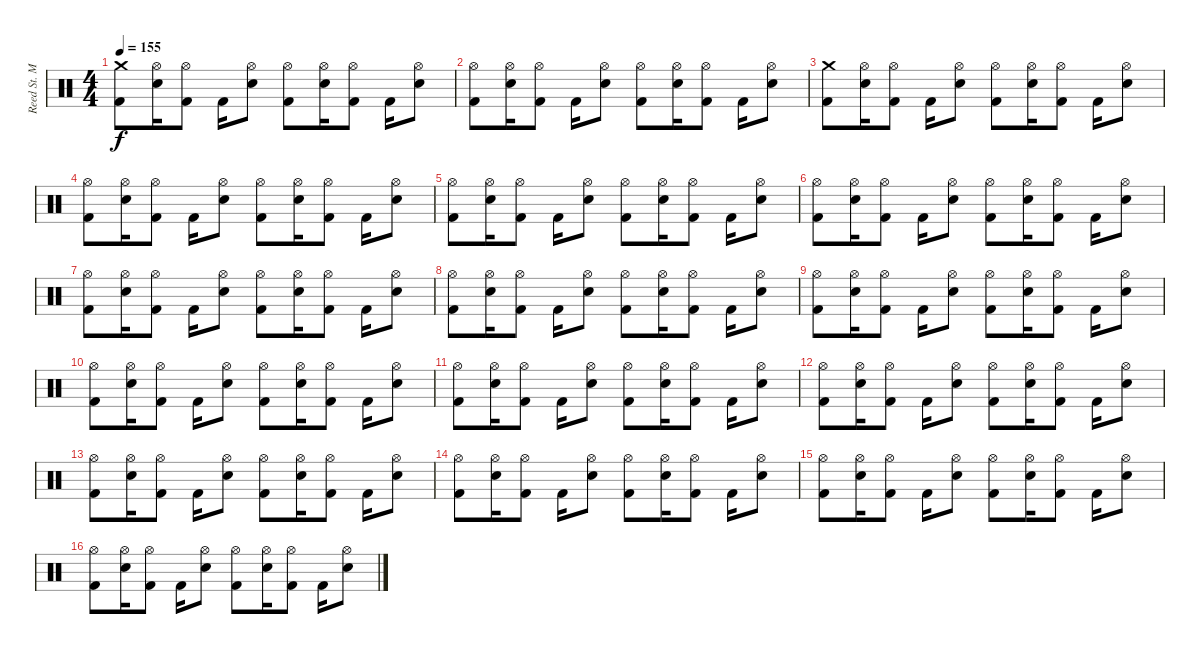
\track ("Reed St. Mark" "Reed St. M") {instrument percussion}
\staff {score}
\articulation defaults
\ts (4 4)
\tempo 155
\clef neutral
\ks c
("Crash medium (hit)" "Kick (hit) 2").8{dy f} ("Hi-Hat (open)" "Snare (hit) 2").16 ("Hi-Hat (open)" "Kick (hit) 2").8 "Kick (hit) 2".16 ("Hi-Hat (open)" "Snare (hit) 2").8 ("Hi-Hat (open)" "Kick (hit) 2").8 ("Hi-Hat (open)" "Snare (hit) 2").16 ("Hi-Hat (open)" "Kick (hit) 2").8 "Kick (hit) 2".16 ("Hi-Hat (open)" "Snare (hit) 2").8 |
("Hi-Hat (open)" "Kick (hit) 2").8 ("Hi-Hat (open)" "Snare (hit) 2").16 ("Hi-Hat (open)" "Kick (hit) 2").8 "Kick (hit) 2".16 ("Hi-Hat (open)" "Snare (hit) 2").8 ("Hi-Hat (open)" "Kick (hit) 2").8 ("Hi-Hat (open)" "Snare (hit) 2").16 ("Hi-Hat (open)" "Kick (hit) 2").8 "Kick (hit) 2".16 ("Hi-Hat (open)" "Snare (hit) 2").8 |
("Crash medium (hit)" "Kick (hit) 2").8 ("Hi-Hat (open)" "Snare (hit) 2").16 ("Hi-Hat (open)" "Kick (hit) 2").8 "Kick (hit) 2".16 ("Hi-Hat (open)" "Snare (hit) 2").8 ("Hi-Hat (open)" "Kick (hit) 2").8 ("Hi-Hat (open)" "Snare (hit) 2").16 ("Hi-Hat (open)" "Kick (hit) 2").8 "Kick (hit) 2".16 ("Hi-Hat (open)" "Snare (hit) 2").8 |
("Hi-Hat (open)" "Kick (hit) 2").8 ("Hi-Hat (open)" "Snare (hit) 2").16 ("Hi-Hat (open)" "Kick (hit) 2").8 "Kick (hit) 2".16 ("Hi-Hat (open)" "Snare (hit) 2").8 ("Hi-Hat (open)" "Kick (hit) 2").8 ("Hi-Hat (open)" "Snare (hit) 2").16 ("Hi-Hat (open)" "Kick (hit) 2").8 "Kick (hit) 2".16 ("Hi-Hat (open)" "Snare (hit) 2").8 |
("Hi-Hat (open)" "Kick (hit) 2").8 ("Hi-Hat (open)" "Snare (hit) 2").16 ("Hi-Hat (open)" "Kick (hit) 2").8 "Kick (hit) 2".16 ("Hi-Hat (open)" "Snare (hit) 2").8 ("Hi-Hat (open)" "Kick (hit) 2").8 ("Hi-Hat (open)" "Snare (hit) 2").16 ("Hi-Hat (open)" "Kick (hit) 2").8 "Kick (hit) 2".16 ("Hi-Hat (open)" "Snare (hit) 2").8 |
("Hi-Hat (open)" "Kick (hit) 2").8 ("Hi-Hat (open)" "Snare (hit) 2").16 ("Hi-Hat (open)" "Kick (hit) 2").8 "Kick (hit) 2".16 ("Hi-Hat (open)" "Snare (hit) 2").8 ("Hi-Hat (open)" "Kick (hit) 2").8 ("Hi-Hat (open)" "Snare (hit) 2").16 ("Hi-Hat (open)" "Kick (hit) 2").8 "Kick (hit) 2".16 ("Hi-Hat (open)" "Snare (hit) 2").8 |
("Hi-Hat (open)" "Kick (hit) 2").8 ("Hi-Hat (open)" "Snare (hit) 2").16 ("Hi-Hat (open)" "Kick (hit) 2").8 "Kick (hit) 2".16 ("Hi-Hat (open)" "Snare (hit) 2").8 ("Hi-Hat (open)" "Kick (hit) 2").8 ("Hi-Hat (open)" "Snare (hit) 2").16 ("Hi-Hat (open)" "Kick (hit) 2").8 "Kick (hit) 2".16 ("Hi-Hat (open)" "Snare (hit) 2").8 |
("Hi-Hat (open)" "Kick (hit) 2").8 ("Hi-Hat (open)" "Snare (hit) 2").16 ("Hi-Hat (open)" "Kick (hit) 2").8 "Kick (hit) 2".16 ("Hi-Hat (open)" "Snare (hit) 2").8 ("Hi-Hat (open)" "Kick (hit) 2").8 ("Hi-Hat (open)" "Snare (hit) 2").16 ("Hi-Hat (open)" "Kick (hit) 2").8 "Kick (hit) 2".16 ("Hi-Hat (open)" "Snare (hit) 2").8 |
("Hi-Hat (open)" "Kick (hit) 2").8 ("Hi-Hat (open)" "Snare (hit) 2").16 ("Hi-Hat (open)" "Kick (hit) 2").8 "Kick (hit) 2".16 ("Hi-Hat (open)" "Snare (hit) 2").8 ("Hi-Hat (open)" "Kick (hit) 2").8 ("Hi-Hat (open)" "Snare (hit) 2").16 ("Hi-Hat (open)" "Kick (hit) 2").8 "Kick (hit) 2".16 ("Hi-Hat (open)" "Snare (hit) 2").8 |
("Hi-Hat (open)" "Kick (hit) 2").8 ("Hi-Hat (open)" "Snare (hit) 2").16 ("Hi-Hat (open)" "Kick (hit) 2").8 "Kick (hit) 2".16 ("Hi-Hat (open)" "Snare (hit) 2").8 ("Hi-Hat (open)" "Kick (hit) 2").8 ("Hi-Hat (open)" "Snare (hit) 2").16 ("Hi-Hat (open)" "Kick (hit) 2").8 "Kick (hit) 2".16 ("Hi-Hat (open)" "Snare (hit) 2").8 |
("Hi-Hat (open)" "Kick (hit) 2").8 ("Hi-Hat (open)" "Snare (hit) 2").16 ("Hi-Hat (open)" "Kick (hit) 2").8 "Kick (hit) 2".16 ("Hi-Hat (open)" "Snare (hit) 2").8 ("Hi-Hat (open)" "Kick (hit) 2").8 ("Hi-Hat (open)" "Snare (hit) 2").16 ("Hi-Hat (open)" "Kick (hit) 2").8 "Kick (hit) 2".16 ("Hi-Hat (open)" "Snare (hit) 2").8 |
("Hi-Hat (open)" "Kick (hit) 2").8 ("Hi-Hat (open)" "Snare (hit) 2").16 ("Hi-Hat (open)" "Kick (hit) 2").8 "Kick (hit) 2".16 ("Hi-Hat (open)" "Snare (hit) 2").8 ("Hi-Hat (open)" "Kick (hit) 2").8 ("Hi-Hat (open)" "Snare (hit) 2").16 ("Hi-Hat (open)" "Kick (hit) 2").8 "Kick (hit) 2".16 ("Hi-Hat (open)" "Snare (hit) 2").8 |
("Hi-Hat (open)" "Kick (hit) 2").8 ("Hi-Hat (open)" "Snare (hit) 2").16 ("Hi-Hat (open)" "Kick (hit) 2").8 "Kick (hit) 2".16 ("Hi-Hat (open)" "Snare (hit) 2").8 ("Hi-Hat (open)" "Kick (hit) 2").8 ("Hi-Hat (open)" "Snare (hit) 2").16 ("Hi-Hat (open)" "Kick (hit) 2").8 "Kick (hit) 2".16 ("Hi-Hat (open)" "Snare (hit) 2").8 |
("Hi-Hat (open)" "Kick (hit) 2").8 ("Hi-Hat (open)" "Snare (hit) 2").16 ("Hi-Hat (open)" "Kick (hit) 2").8 "Kick (hit) 2".16 ("Hi-Hat (open)" "Snare (hit) 2").8 ("Hi-Hat (open)" "Kick (hit) 2").8 ("Hi-Hat (open)" "Snare (hit) 2").16 ("Hi-Hat (open)" "Kick (hit) 2").8 "Kick (hit) 2".16 ("Hi-Hat (open)" "Snare (hit) 2").8 |
("Hi-Hat (open)" "Kick (hit) 2").8 ("Hi-Hat (open)" "Snare (hit) 2").16 ("Hi-Hat (open)" "Kick (hit) 2").8 "Kick (hit) 2".16 ("Hi-Hat (open)" "Snare (hit) 2").8 ("Hi-Hat (open)" "Kick (hit) 2").8 ("Hi-Hat (open)" "Snare (hit) 2").16 ("Hi-Hat (open)" "Kick (hit) 2").8 "Kick (hit) 2".16 ("Hi-Hat (open)" "Snare (hit) 2").8 |
("Hi-Hat (open)" "Kick (hit) 2").8 ("Hi-Hat (open)" "Snare (hit) 2").16 ("Hi-Hat (open)" "Kick (hit) 2").8 "Kick (hit) 2".16 ("Hi-Hat (open)" "Snare (hit) 2").8 ("Hi-Hat (open)" "Kick (hit) 2").8 ("Hi-Hat (open)" "Snare (hit) 2").16 ("Hi-Hat (open)" "Kick (hit) 2").8 "Kick (hit) 2".16 ("Hi-Hat (open)" "Snare (hit) 2").8
